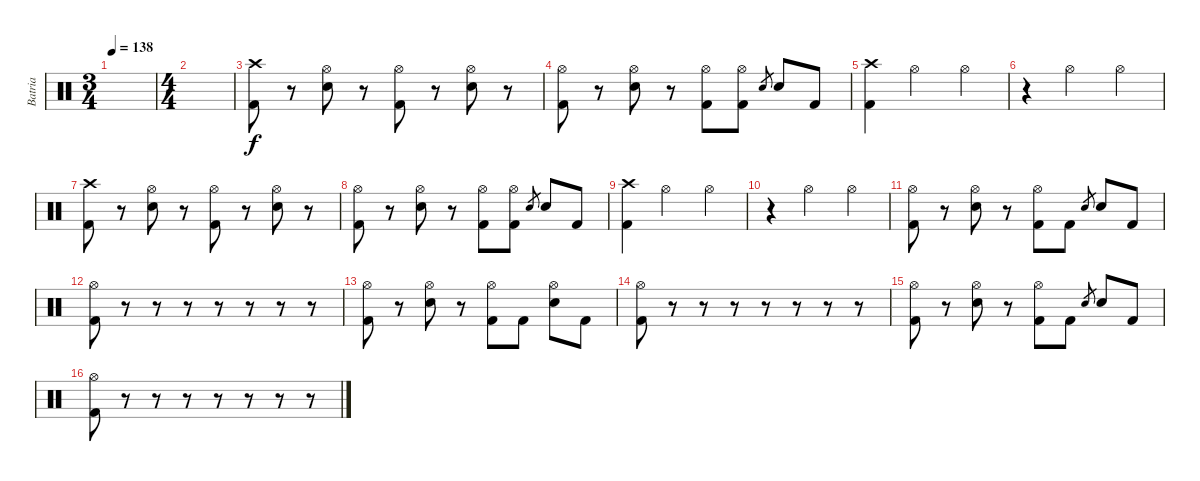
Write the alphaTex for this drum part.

\track ("Batria" "Batria") {instrument percussion}
\staff {score}
\articulation defaults
\ts (3 4)
\tempo 138
\clef neutral
\ks c
|
\ts (4 4)
|
("Crash high (hit)" "Kick (hit) 2").8 r.8 ("Hi-Hat (open)" "Electric Snare (hit)").8 r.8 ("Hi-Hat (open)" "Kick (hit) 2").8 r.8 ("Hi-Hat (open)" "Electric Snare (hit)").8 r.8 |
("Hi-Hat (open)" "Kick (hit) 2").8 r.8 ("Hi-Hat (open)" "Electric Snare (hit)").8 r.8 ("Hi-Hat (open)" "Kick (hit) 2").8 ("Hi-Hat (open)" "Kick (hit) 2").8 "Electric Snare (hit)".8{gr} "Electric Snare (hit)".8 "Kick (hit) 2".8 |
("Crash high (hit)" "Kick (hit) 2").4 "Hi-Hat (open)".2 "Hi-Hat (open)".4 |
r.4 "Hi-Hat (open)".2 "Hi-Hat (open)".4 |
("Crash high (hit)" "Kick (hit) 2").8 r.8 ("Hi-Hat (open)" "Electric Snare (hit)").8 r.8 ("Hi-Hat (open)" "Kick (hit) 2").8 r.8 ("Hi-Hat (open)" "Electric Snare (hit)").8 r.8 |
("Hi-Hat (open)" "Kick (hit) 2").8 r.8 ("Hi-Hat (open)" "Electric Snare (hit)").8 r.8 ("Hi-Hat (open)" "Kick (hit) 2").8 ("Hi-Hat (open)" "Kick (hit) 2").8 "Electric Snare (hit)".8{gr} "Electric Snare (hit)".8 "Kick (hit) 2".8 |
("Crash high (hit)" "Kick (hit) 2").4 "Hi-Hat (open)".2 "Hi-Hat (open)".4 |
r.4 "Hi-Hat (open)".2 "Hi-Hat (open)".4 |
("Hi-Hat (open)" "Kick (hit) 2").8 r.8 ("Hi-Hat (open)" "Electric Snare (hit)").8 r.8 ("Hi-Hat (open)" "Kick (hit) 2").8 "Kick (hit) 2".8 "Electric Snare (hit)".8{gr} "Electric Snare (hit)".8 "Kick (hit) 2".8 |
("Hi-Hat (open)" "Kick (hit) 2").8 r.8 r.8 r.8 r.8 r.8 r.8 r.8 |
("Hi-Hat (open)" "Kick (hit) 2").8 r.8 ("Hi-Hat (open)" "Electric Snare (hit)").8 r.8 ("Hi-Hat (open)" "Kick (hit) 2").8 "Kick (hit) 2".8 ("Hi-Hat (open)" "Electric Snare (hit)").8 "Kick (hit) 2".8 |
("Hi-Hat (open)" "Kick (hit) 2").8 r.8 r.8 r.8 r.8 r.8 r.8 r.8 |
("Hi-Hat (open)" "Kick (hit) 2").8 r.8 ("Hi-Hat (open)" "Electric Snare (hit)").8 r.8 ("Hi-Hat (open)" "Kick (hit) 2").8 "Kick (hit) 2".8 "Electric Snare (hit)".8{gr} "Electric Snare (hit)".8 "Kick (hit) 2".8 |
("Hi-Hat (open)" "Kick (hit) 2").8 r.8 r.8 r.8 r.8 r.8 r.8 r.8
